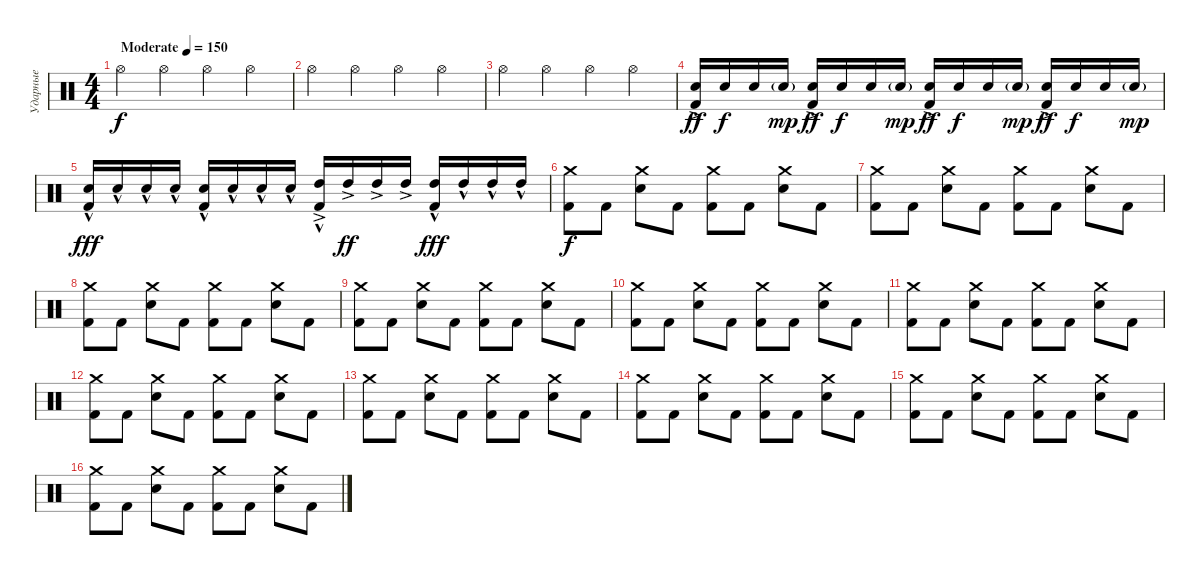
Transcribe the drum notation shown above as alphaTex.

\track ("Ударные" "Ударные") {instrument percussion}
\staff {score}
\articulation defaults
\ts (4 4)
\tempo (150 "Moderate")
\clef neutral
\ks c "Hi-Hat (open)".4{dy f} "Hi-Hat (open)".4 "Hi-Hat (open)".4 "Hi-Hat (open)".4
|
"Hi-Hat (open)".4 "Hi-Hat (open)".4 "Hi-Hat (open)".4 "Hi-Hat (open)".4 |
"Hi-Hat (open)".4 "Hi-Hat (open)".4 "Hi-Hat (open)".4 "Hi-Hat (open)".4 |
("Snare (hit) 2"{ac} "Kick (hit) 2"{ac}).16{dy ff} "Snare (hit) 2".16{dy f} "Snare (hit) 2".16 "Snare (hit) 2"{g}.16{dy mp} ("Snare (hit) 2"{ac} "Kick (hit) 2"{ac}).16{dy ff} "Snare (hit) 2".16{dy f} "Snare (hit) 2".16 "Snare (hit) 2"{g}.16{dy mp} ("Snare (hit) 2"{ac} "Kick (hit) 2"{ac}).16{dy ff} "Snare (hit) 2".16{dy f} "Snare (hit) 2".16 "Snare (hit) 2"{g}.16{dy mp} ("Snare (hit) 2"{ac} "Kick (hit) 2"{ac}).16{dy ff} "Snare (hit) 2".16{dy f} "Snare (hit) 2".16 "Snare (hit) 2"{g}.16{dy mp} |
("Snare (hit) 2"{hac} "Kick (hit) 2").16{dy fff} "Snare (hit) 2"{hac}.16 "Snare (hit) 2"{hac}.16 "Snare (hit) 2"{hac}.16 ("Snare (hit) 2"{hac} "Kick (hit) 2").16 "Snare (hit) 2"{hac}.16 "Snare (hit) 2"{hac}.16 "Snare (hit) 2"{hac}.16 ("High Tom (hit)"{ac} "Kick (hit) 2"{hac}).16 "High Tom (hit)"{ac}.16{dy ff} "High Tom (hit)"{ac}.16 "High Tom (hit)"{ac}.16 ("High Tom (hit)"{hac} "Kick (hit) 2"{hac}).16{dy fff} "High Tom (hit)"{hac}.16 "High Tom (hit)"{hac}.16 "High Tom (hit)"{hac}.16 |
("Crash medium (hit)" "Kick (hit) 2").8{dy f} "Kick (hit) 2".8 ("Crash medium (hit)" "Snare (hit) 2").8 "Kick (hit) 2".8 ("Crash medium (hit)" "Kick (hit) 2").8 "Kick (hit) 2".8 ("Crash medium (hit)" "Snare (hit) 2").8 "Kick (hit) 2".8 |
("Crash medium (hit)" "Kick (hit) 2").8 "Kick (hit) 2".8 ("Crash medium (hit)" "Snare (hit) 2").8 "Kick (hit) 2".8 ("Crash medium (hit)" "Kick (hit) 2").8 "Kick (hit) 2".8 ("Crash medium (hit)" "Snare (hit) 2").8 "Kick (hit) 2".8 |
("Crash medium (hit)" "Kick (hit) 2").8 "Kick (hit) 2".8 ("Crash medium (hit)" "Snare (hit) 2").8 "Kick (hit) 2".8 ("Crash medium (hit)" "Kick (hit) 2").8 "Kick (hit) 2".8 ("Crash medium (hit)" "Snare (hit) 2").8 "Kick (hit) 2".8 |
("Crash medium (hit)" "Kick (hit) 2").8 "Kick (hit) 2".8 ("Crash medium (hit)" "Snare (hit) 2").8 "Kick (hit) 2".8 ("Crash medium (hit)" "Kick (hit) 2").8 "Kick (hit) 2".8 ("Crash medium (hit)" "Snare (hit) 2").8 "Kick (hit) 2".8 |
("Crash medium (hit)" "Kick (hit) 2").8 "Kick (hit) 2".8 ("Crash medium (hit)" "Snare (hit) 2").8 "Kick (hit) 2".8 ("Crash medium (hit)" "Kick (hit) 2").8 "Kick (hit) 2".8 ("Crash medium (hit)" "Snare (hit) 2").8 "Kick (hit) 2".8 |
("Crash medium (hit)" "Kick (hit) 2").8 "Kick (hit) 2".8 ("Crash medium (hit)" "Snare (hit) 2").8 "Kick (hit) 2".8 ("Crash medium (hit)" "Kick (hit) 2").8 "Kick (hit) 2".8 ("Crash medium (hit)" "Snare (hit) 2").8 "Kick (hit) 2".8 |
("Crash medium (hit)" "Kick (hit) 2").8 "Kick (hit) 2".8 ("Crash medium (hit)" "Snare (hit) 2").8 "Kick (hit) 2".8 ("Crash medium (hit)" "Kick (hit) 2").8 "Kick (hit) 2".8 ("Crash medium (hit)" "Snare (hit) 2").8 "Kick (hit) 2".8 |
("Crash medium (hit)" "Kick (hit) 2").8 "Kick (hit) 2".8 ("Crash medium (hit)" "Snare (hit) 2").8 "Kick (hit) 2".8 ("Crash medium (hit)" "Kick (hit) 2").8 "Kick (hit) 2".8 ("Crash medium (hit)" "Snare (hit) 2").8 "Kick (hit) 2".8 |
("Crash medium (hit)" "Kick (hit) 2").8 "Kick (hit) 2".8 ("Crash medium (hit)" "Snare (hit) 2").8 "Kick (hit) 2".8 ("Crash medium (hit)" "Kick (hit) 2").8 "Kick (hit) 2".8 ("Crash medium (hit)" "Snare (hit) 2").8 "Kick (hit) 2".8 |
("Crash medium (hit)" "Kick (hit) 2").8 "Kick (hit) 2".8 ("Crash medium (hit)" "Snare (hit) 2").8 "Kick (hit) 2".8 ("Crash medium (hit)" "Kick (hit) 2").8 "Kick (hit) 2".8 ("Crash medium (hit)" "Snare (hit) 2").8 "Kick (hit) 2".8 |
("Crash medium (hit)" "Kick (hit) 2").8 "Kick (hit) 2".8 ("Crash medium (hit)" "Snare (hit) 2").8 "Kick (hit) 2".8 ("Crash medium (hit)" "Kick (hit) 2").8 "Kick (hit) 2".8 ("Crash medium (hit)" "Snare (hit) 2").8 "Kick (hit) 2".8
